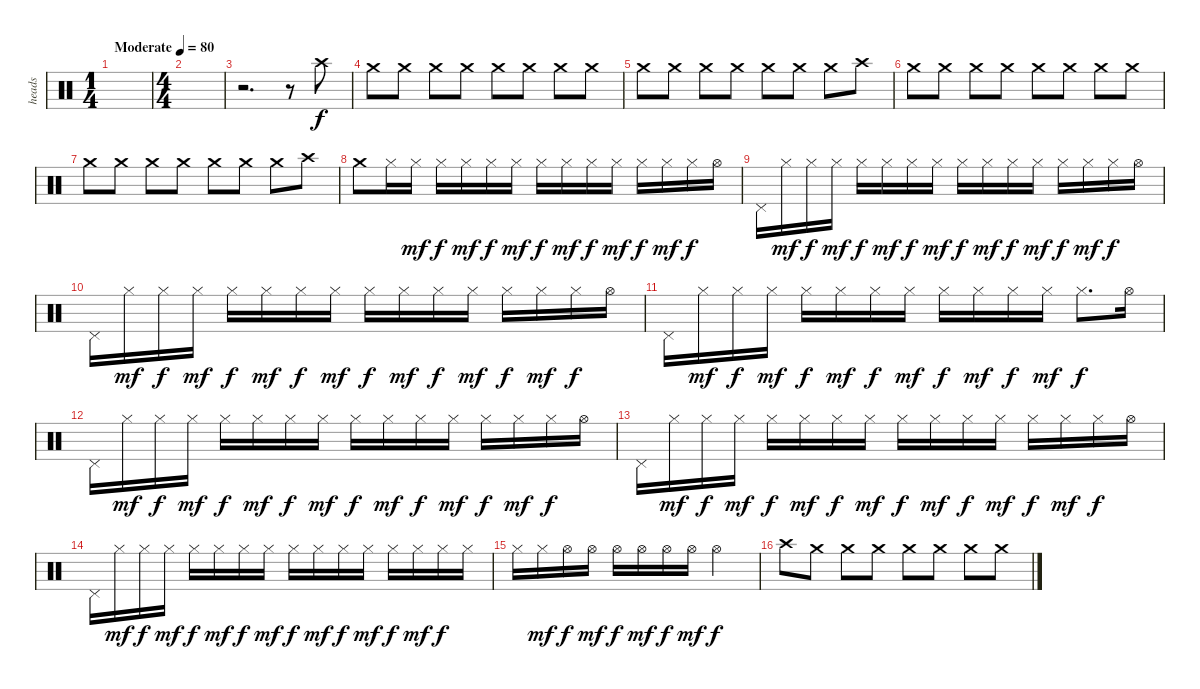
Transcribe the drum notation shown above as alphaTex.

\track ("heads" "heads") {instrument percussion}
\staff {score}
\articulation defaults
\ts (1 4)
\tempo (80 "Moderate")
\clef neutral
\ks c
|
\ts (4 4)
|
r.2{d} r.8 "Crash high (hit)".8 |
"Crash medium (hit)".8 "Crash medium (hit)".8 "Crash medium (hit)".8 "Crash medium (hit)".8 "Crash medium (hit)".8 "Crash medium (hit)".8 "Crash medium (hit)".8 "Crash medium (hit)".8 |
"Crash medium (hit)".8 "Crash medium (hit)".8 "Crash medium (hit)".8 "Crash medium (hit)".8 "Crash medium (hit)".8 "Crash medium (hit)".8 "Crash medium (hit)".8 "Crash high (hit)".8 |
"Crash medium (hit)".8 "Crash medium (hit)".8 "Crash medium (hit)".8 "Crash medium (hit)".8 "Crash medium (hit)".8 "Crash medium (hit)".8 "Crash medium (hit)".8 "Crash medium (hit)".8 |
"Crash medium (hit)".8 "Crash medium (hit)".8 "Crash medium (hit)".8 "Crash medium (hit)".8 "Crash medium (hit)".8 "Crash medium (hit)".8 "Crash medium (hit)".8 "Crash high (hit)".8 |
"Crash medium (hit)".8 "Hi-Hat (closed)".16 "Hi-Hat (closed)".16{dy mf} "Hi-Hat (closed)".16{dy f} "Hi-Hat (closed)".16{dy mf} "Hi-Hat (closed)".16{dy f} "Hi-Hat (closed)".16{dy mf} "Hi-Hat (closed)".16{dy f} "Hi-Hat (closed)".16{dy mf} "Hi-Hat (closed)".16{dy f} "Hi-Hat (closed)".16{dy mf} "Hi-Hat (closed)".16{dy f} "Hi-Hat (closed)".16{dy mf} "Hi-Hat (closed)".16{dy f} "Hi-Hat (open)".16 |
"Pedal Hi-Hat (hit)".16 "Hi-Hat (closed)".16{dy mf} "Hi-Hat (closed)".16{dy f} "Hi-Hat (closed)".16{dy mf} "Hi-Hat (closed)".16{dy f} "Hi-Hat (closed)".16{dy mf} "Hi-Hat (closed)".16{dy f} "Hi-Hat (closed)".16{dy mf} "Hi-Hat (closed)".16{dy f} "Hi-Hat (closed)".16{dy mf} "Hi-Hat (closed)".16{dy f} "Hi-Hat (closed)".16{dy mf} "Hi-Hat (closed)".16{dy f} "Hi-Hat (closed)".16{dy mf} "Hi-Hat (closed)".16{dy f} "Hi-Hat (open)".16 |
"Pedal Hi-Hat (hit)".16 "Hi-Hat (closed)".16{dy mf} "Hi-Hat (closed)".16{dy f} "Hi-Hat (closed)".16{dy mf} "Hi-Hat (closed)".16{dy f} "Hi-Hat (closed)".16{dy mf} "Hi-Hat (closed)".16{dy f} "Hi-Hat (closed)".16{dy mf} "Hi-Hat (closed)".16{dy f} "Hi-Hat (closed)".16{dy mf} "Hi-Hat (closed)".16{dy f} "Hi-Hat (closed)".16{dy mf} "Hi-Hat (closed)".16{dy f} "Hi-Hat (closed)".16{dy mf} "Hi-Hat (closed)".16{dy f} "Hi-Hat (open)".16 |
"Pedal Hi-Hat (hit)".16 "Hi-Hat (closed)".16{dy mf} "Hi-Hat (closed)".16{dy f} "Hi-Hat (closed)".16{dy mf} "Hi-Hat (closed)".16{dy f} "Hi-Hat (closed)".16{dy mf} "Hi-Hat (closed)".16{dy f} "Hi-Hat (closed)".16{dy mf} "Hi-Hat (closed)".16{dy f} "Hi-Hat (closed)".16{dy mf} "Hi-Hat (closed)".16{dy f} "Hi-Hat (closed)".16{dy mf} "Hi-Hat (closed)".8{d dy f} "Hi-Hat (open)".16 |
"Pedal Hi-Hat (hit)".16 "Hi-Hat (closed)".16{dy mf} "Hi-Hat (closed)".16{dy f} "Hi-Hat (closed)".16{dy mf} "Hi-Hat (closed)".16{dy f} "Hi-Hat (closed)".16{dy mf} "Hi-Hat (closed)".16{dy f} "Hi-Hat (closed)".16{dy mf} "Hi-Hat (closed)".16{dy f} "Hi-Hat (closed)".16{dy mf} "Hi-Hat (closed)".16{dy f} "Hi-Hat (closed)".16{dy mf} "Hi-Hat (closed)".16{dy f} "Hi-Hat (closed)".16{dy mf} "Hi-Hat (closed)".16{dy f} "Hi-Hat (open)".16 |
"Pedal Hi-Hat (hit)".16 "Hi-Hat (closed)".16{dy mf} "Hi-Hat (closed)".16{dy f} "Hi-Hat (closed)".16{dy mf} "Hi-Hat (closed)".16{dy f} "Hi-Hat (closed)".16{dy mf} "Hi-Hat (closed)".16{dy f} "Hi-Hat (closed)".16{dy mf} "Hi-Hat (closed)".16{dy f} "Hi-Hat (closed)".16{dy mf} "Hi-Hat (closed)".16{dy f} "Hi-Hat (closed)".16{dy mf} "Hi-Hat (closed)".16{dy f} "Hi-Hat (closed)".16{dy mf} "Hi-Hat (closed)".16{dy f} "Hi-Hat (open)".16 |
"Pedal Hi-Hat (hit)".16 "Hi-Hat (closed)".16{dy mf} "Hi-Hat (closed)".16{dy f} "Hi-Hat (closed)".16{dy mf} "Hi-Hat (closed)".16{dy f} "Hi-Hat (closed)".16{dy mf} "Hi-Hat (closed)".16{dy f} "Hi-Hat (closed)".16{dy mf} "Hi-Hat (closed)".16{dy f} "Hi-Hat (closed)".16{dy mf} "Hi-Hat (closed)".16{dy f} "Hi-Hat (closed)".16{dy mf} "Hi-Hat (closed)".16{dy f} "Hi-Hat (closed)".16{dy mf} "Hi-Hat (closed)".16{dy f} "Hi-Hat (closed)".16 |
"Hi-Hat (closed)".16 "Hi-Hat (closed)".16{dy mf} "Hi-Hat (open)".16{dy f} "Hi-Hat (open)".16{dy mf} "Hi-Hat (open)".16{dy f} "Hi-Hat (open)".16{dy mf} "Hi-Hat (open)".16{dy f} "Hi-Hat (open)".16{dy mf} "Hi-Hat (open)".2{dy f} |
"Crash high (hit)".8 "Crash medium (hit)".8 "Crash medium (hit)".8 "Crash medium (hit)".8 "Crash medium (hit)".8 "Crash medium (hit)".8 "Crash medium (hit)".8 "Crash medium (hit)".8
